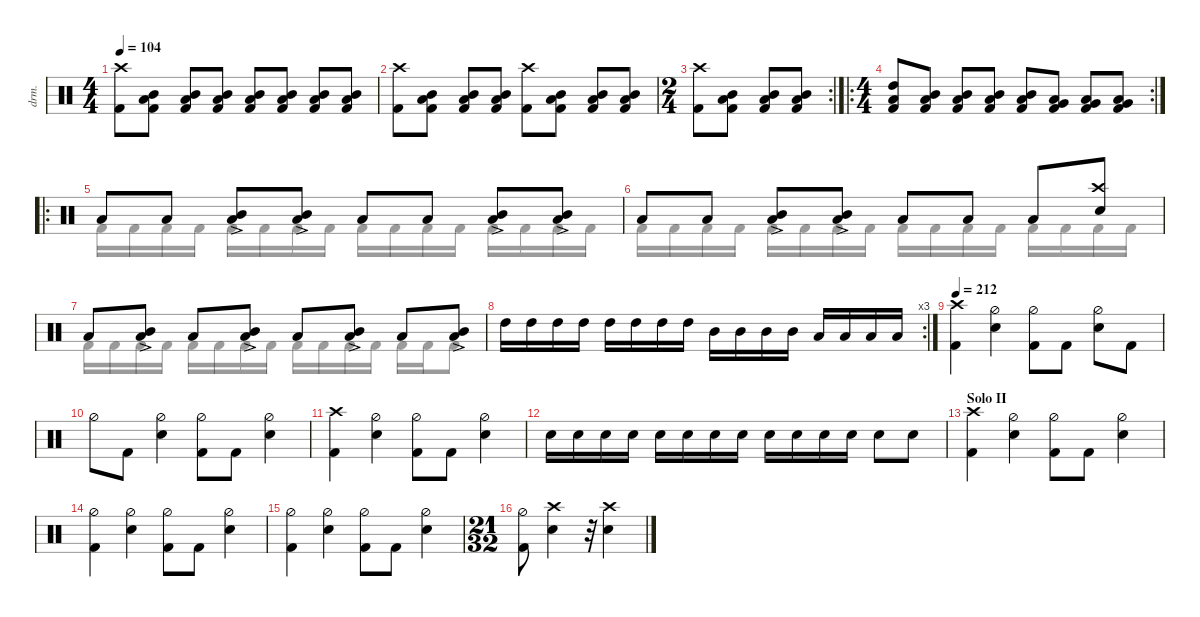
\defaultSystemsLayout 4
\hideDynamics
\bracketExtendMode nobrackets
\track ("Drums" "drm.") {defaultSystemsLayout 4 multiBarRest instrument percussion}
\staff
\articulation defaults
\voice
\ts (4 4)
\tempo 104
\clef neutral
\ks c
("Kick (hit) 2" "Crash high (hit)").8{dy f} ("Low Tom (hit)" "Mid Tom (hit)" "Kick (hit) 2").8 ("Low Tom (hit)" "Mid Tom (hit)" "Kick (hit) 2").8 ("Low Tom (hit)" "Mid Tom (hit)" "Kick (hit) 2").8 ("Low Tom (hit)" "Mid Tom (hit)" "Kick (hit) 2").8 ("Low Tom (hit)" "Mid Tom (hit)" "Kick (hit) 2").8 ("Low Tom (hit)" "Mid Tom (hit)" "Kick (hit) 2").8 ("Low Tom (hit)" "Mid Tom (hit)" "Kick (hit) 2").8 |
("Kick (hit) 2" "Crash high (hit)").8 ("Low Tom (hit)" "Mid Tom (hit)" "Kick (hit) 2").8 ("Low Tom (hit)" "Mid Tom (hit)" "Kick (hit) 2").8 ("Low Tom (hit)" "Mid Tom (hit)" "Kick (hit) 2").8 ("Kick (hit) 2" "Crash high (hit)").8 ("Low Tom (hit)" "Mid Tom (hit)" "Kick (hit) 2").8 ("Low Tom (hit)" "Mid Tom (hit)" "Kick (hit) 2").8 ("Low Tom (hit)" "Mid Tom (hit)" "Kick (hit) 2").8 |
\rc 2
\ts (2 4)
\beaming (8 2 2)
("Kick (hit) 2" "Crash high (hit)").8 ("Low Tom (hit)" "Mid Tom (hit)" "Kick (hit) 2").8 ("Low Tom (hit)" "Mid Tom (hit)" "Kick (hit) 2").8 ("Low Tom (hit)" "Mid Tom (hit)" "Kick (hit) 2").8 |
\ro
\rc 2
\ts (4 4)
\beaming (8 2 2 2 2)
("Kick (hit) 2" "Low Tom (hit)" "High Tom (hit)").8 ("Kick (hit) 2" "Low Tom (hit)" "Mid Tom (hit)").8 ("Kick (hit) 2" "Low Tom (hit)" "Mid Tom (hit)").8 ("Kick (hit) 2" "Low Tom (hit)" "Mid Tom (hit)").8 ("Kick (hit) 2" "Low Tom (hit)" "Mid Tom (hit)").8 ("Kick (hit) 2" "Low Tom (hit)" "Very Low Tom (hit)").8 ("Kick (hit) 2" "Low Tom (hit)" "Very Low Tom (hit)").8 ("Kick (hit) 2" "Low Tom (hit)" "Very Low Tom (hit)").8 |
\ro "Low Tom (hit)".8{dy fff} "Low Tom (hit)".8
("Low Tom (hit)" "Mid Tom (hit)"{ac}).8 ("Low Tom (hit)" "Mid Tom (hit)"{ac}).8 "Low Tom (hit)".8 "Low Tom (hit)".8 ("Low Tom (hit)" "Mid Tom (hit)"{ac}).8 ("Low Tom (hit)" "Mid Tom (hit)"{ac}).8 |
"Low Tom (hit)".8 "Low Tom (hit)".8 ("Low Tom (hit)" "Mid Tom (hit)"{ac}).8 ("Low Tom (hit)" "Mid Tom (hit)"{ac}).8 "Low Tom (hit)".8 "Low Tom (hit)".8 "Low Tom (hit)".8 ("Snare (hit) 2" "Crash high (hit)").8{dy f} |
"Low Tom (hit)".8{dy fff} ("Low Tom (hit)" "Mid Tom (hit)"{ac}).8 "Low Tom (hit)".8 ("Low Tom (hit)" "Mid Tom (hit)"{ac}).8 "Low Tom (hit)".8 ("Low Tom (hit)" "Mid Tom (hit)"{ac}).8 "Low Tom (hit)".8 ("Low Tom (hit)" "Mid Tom (hit)"{ac}).8 |
\rc 3 "High Tom (hit)".16 "High Tom (hit)".16 "High Tom (hit)".16 "High Tom (hit)".16 "High Tom (hit)".16 "High Tom (hit)".16 "High Tom (hit)".16 "High Tom (hit)".16 "Mid Tom (hit)".16 "Mid Tom (hit)".16 "Mid Tom (hit)".16 "Mid Tom (hit)".16 "Low Tom (hit)".16 "Low Tom (hit)".16 "Low Tom (hit)".16 "Low Tom (hit)".16
|
\tempo 212
("Crash high (hit)" "Kick (hit) 2").4{dy f} ("Hi-Hat (half)" "Snare (hit) 2").4 ("Hi-Hat (half)" "Kick (hit) 2").8 "Kick (hit) 2".8 ("Hi-Hat (half)" "Snare (hit) 2").8 "Kick (hit) 2".8 |
"Hi-Hat (half)".8 "Kick (hit) 2".8 ("Hi-Hat (half)" "Snare (hit) 2").4 ("Hi-Hat (half)" "Kick (hit) 2").8 "Kick (hit) 2".8 ("Hi-Hat (half)" "Snare (hit) 2").4 |
("Crash high (hit)" "Kick (hit) 2").4 ("Hi-Hat (half)" "Snare (hit) 2").4 ("Hi-Hat (half)" "Kick (hit) 2").8 "Kick (hit) 2".8 ("Hi-Hat (half)" "Snare (hit) 2").4 |
"Snare (hit) 2".16 "Snare (hit) 2".16{dy mp} "Snare (hit) 2".16 "Snare (hit) 2".16{dy mf} "Snare (hit) 2".16{dy f} "Snare (hit) 2".16{dy mp} "Snare (hit) 2".16 "Snare (hit) 2".16{dy mf} "Snare (hit) 2".16{dy f} "Snare (hit) 2".16{dy mp} "Snare (hit) 2".16 "Snare (hit) 2".16{dy mf} "Snare (hit) 2".8{dy f} "Snare (hit) 2".8 |
\section ("" "Solo II")
("Crash high (hit)" "Kick (hit) 2").4 ("Hi-Hat (half)" "Snare (hit) 2").4 ("Hi-Hat (half)" "Kick (hit) 2").8 "Kick (hit) 2".8 ("Hi-Hat (half)" "Snare (hit) 2").4 |
("Kick (hit) 2" "Hi-Hat (half)").4 ("Hi-Hat (half)" "Snare (hit) 2").4 ("Hi-Hat (half)" "Kick (hit) 2").8 "Kick (hit) 2".8 ("Hi-Hat (half)" "Snare (hit) 2").4 |
("Kick (hit) 2" "Hi-Hat (half)").4 ("Hi-Hat (half)" "Snare (hit) 2").4 ("Hi-Hat (half)" "Kick (hit) 2").8 "Kick (hit) 2".8 ("Hi-Hat (half)" "Snare (hit) 2").4 |
\ts (21 32)
\beaming (8 3 2)
("Kick (hit) 2" "Hi-Hat (half)").8 ("Snare (hit) 2" "Crash high (hit)").4 r.32 ("Snare (hit) 2" "Crash high (hit)").4
\voice
\clef neutral
\ottava regular
\simile none
\ks c
|
|
|
|
"Kick (hit) 2".16 "Kick (hit) 2".16 "Kick (hit) 2".16 "Kick (hit) 2".16 "Kick (hit) 2".16 "Kick (hit) 2".16 "Kick (hit) 2".16 "Kick (hit) 2".16 "Kick (hit) 2".16 "Kick (hit) 2".16 "Kick (hit) 2".16 "Kick (hit) 2".16 "Kick (hit) 2".16 "Kick (hit) 2".16 "Kick (hit) 2".16 "Kick (hit) 2".16 |
"Kick (hit) 2".16 "Kick (hit) 2".16 "Kick (hit) 2".16 "Kick (hit) 2".16 "Kick (hit) 2".16 "Kick (hit) 2".16 "Kick (hit) 2".16 "Kick (hit) 2".16 "Kick (hit) 2".16 "Kick (hit) 2".16 "Kick (hit) 2".16 "Kick (hit) 2".16 "Kick (hit) 2".16 "Kick (hit) 2".16 "Kick (hit) 2".16 "Kick (hit) 2".16 |
"Kick (hit) 2".16 "Kick (hit) 2".16 "Kick (hit) 2".16 "Kick (hit) 2".16 "Kick (hit) 2".16 "Kick (hit) 2".16 "Kick (hit) 2".16 "Kick (hit) 2".16 "Kick (hit) 2".16 "Kick (hit) 2".16 "Kick (hit) 2".16 "Kick (hit) 2".16 "Kick (hit) 2".16 "Kick (hit) 2".16 "Kick (hit) 2".8 |
|
|
|
|
|
|
|
|
